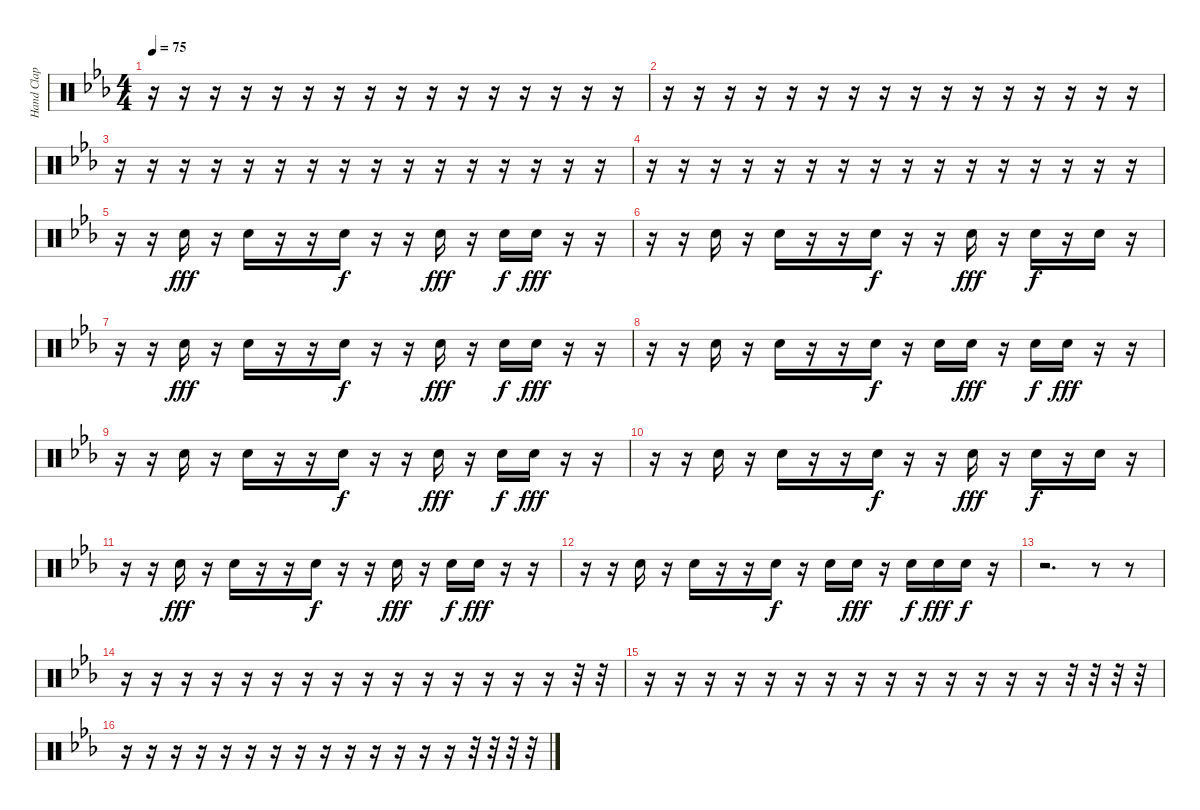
\track ("Hand Clap" "Hand Clap") {instrument percussion}
\staff {score}
\articulation defaults
\ts (4 4)
\tempo 75
\clef neutral
\ks eb
r.16{dy fff} r.16 r.16 r.16 r.16 r.16 r.16 r.16 r.16 r.16 r.16 r.16 r.16 r.16 r.16 r.16 |
r.16 r.16 r.16 r.16 r.16 r.16 r.16 r.16 r.16 r.16 r.16 r.16 r.16 r.16 r.16 r.16 |
r.16 r.16 r.16 r.16 r.16 r.16 r.16 r.16 r.16 r.16 r.16 r.16 r.16 r.16 r.16 r.16 |
r.16 r.16 r.16 r.16 r.16 r.16 r.16 r.16 r.16 r.16 r.16 r.16 r.16 r.16 r.16 r.16 |
r.16 r.16 "Hand Clap (hit)".16 r.16 "Hand Clap (hit)".16 r.16 r.16 "Hand Clap (hit)".16{dy f} r.16 r.16 "Hand Clap (hit)".16{dy fff} r.16 "Hand Clap (hit)".16{dy f} "Hand Clap (hit)".16{dy fff} r.16 r.16 |
r.16 r.16 "Hand Clap (hit)".16 r.16 "Hand Clap (hit)".16 r.16 r.16 "Hand Clap (hit)".16{dy f} r.16 r.16 "Hand Clap (hit)".16{dy fff} r.16 "Hand Clap (hit)".16{dy f} r.16 "Hand Clap (hit)".16 r.16 |
r.16 r.16 "Hand Clap (hit)".16{dy fff} r.16 "Hand Clap (hit)".16 r.16 r.16 "Hand Clap (hit)".16{dy f} r.16 r.16 "Hand Clap (hit)".16{dy fff} r.16 "Hand Clap (hit)".16{dy f} "Hand Clap (hit)".16{dy fff} r.16 r.16 |
r.16 r.16 "Hand Clap (hit)".16 r.16 "Hand Clap (hit)".16 r.16 r.16 "Hand Clap (hit)".16{dy f} r.16 "Hand Clap (hit)".16 "Hand Clap (hit)".16{dy fff} r.16 "Hand Clap (hit)".16{dy f} "Hand Clap (hit)".16{dy fff} r.16 r.16 |
r.16 r.16 "Hand Clap (hit)".16 r.16 "Hand Clap (hit)".16 r.16 r.16 "Hand Clap (hit)".16{dy f} r.16 r.16 "Hand Clap (hit)".16{dy fff} r.16 "Hand Clap (hit)".16{dy f} "Hand Clap (hit)".16{dy fff} r.16 r.16 |
r.16 r.16 "Hand Clap (hit)".16 r.16 "Hand Clap (hit)".16 r.16 r.16 "Hand Clap (hit)".16{dy f} r.16 r.16 "Hand Clap (hit)".16{dy fff} r.16 "Hand Clap (hit)".16{dy f} r.16 "Hand Clap (hit)".16 r.16 |
r.16 r.16 "Hand Clap (hit)".16{dy fff} r.16 "Hand Clap (hit)".16 r.16 r.16 "Hand Clap (hit)".16{dy f} r.16 r.16 "Hand Clap (hit)".16{dy fff} r.16 "Hand Clap (hit)".16{dy f} "Hand Clap (hit)".16{dy fff} r.16 r.16 |
r.16 r.16 "Hand Clap (hit)".16 r.16 "Hand Clap (hit)".16 r.16 r.16 "Hand Clap (hit)".16{dy f} r.16 "Hand Clap (hit)".16 "Hand Clap (hit)".16{dy fff} r.16 "Hand Clap (hit)".16{dy f} "Hand Clap (hit)".16{dy fff} "Hand Clap (hit)".16{dy f} r.16 |
r.2{d} r.8 r.8 |
r.16 r.16 r.16 r.16 r.16 r.16 r.16 r.16 r.16 r.16 r.16 r.16 r.16 r.16 r.16 r.32 r.32 |
r.16 r.16 r.16 r.16 r.16 r.16 r.16 r.16 r.16 r.16 r.16 r.16 r.16 r.16 r.32 r.32 r.32 r.32 |
r.16 r.16 r.16 r.16 r.16 r.16 r.16 r.16 r.16 r.16 r.16 r.16 r.16 r.16 r.32 r.32 r.32 r.32
